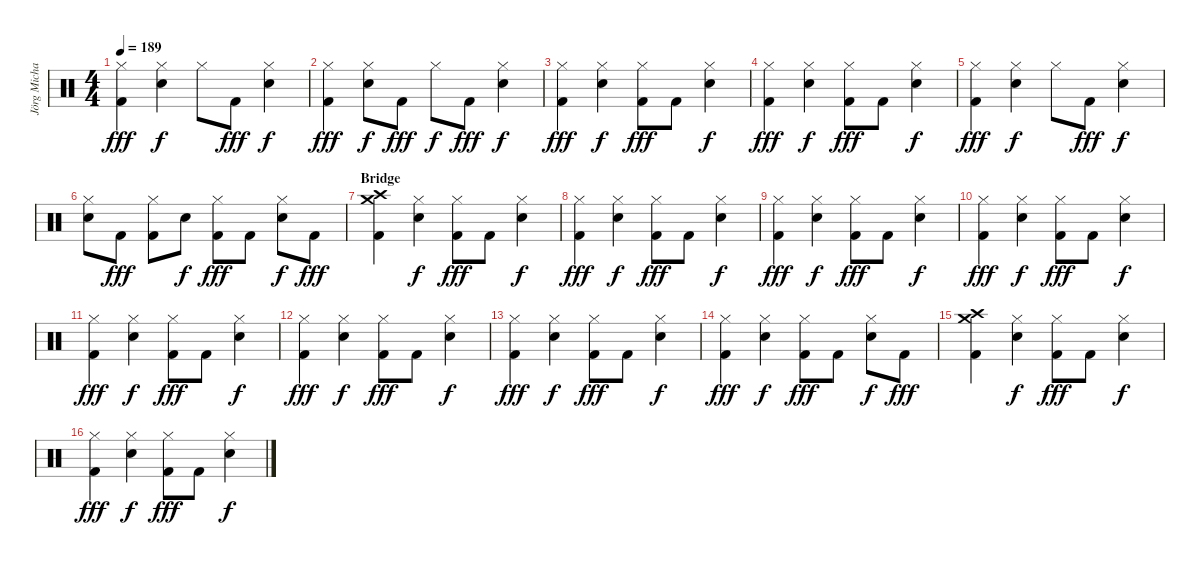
\track ("Jörg Michael" "Jörg Micha") {instrument percussion}
\staff {score}
\articulation defaults
\ts (4 4)
\tempo 189
\clef neutral
\ks c
("Hi-Hat (closed)" "Kick (hit) 2").4{dy fff} ("Hi-Hat (closed)" "Electric Snare (hit)").4{dy f} "Hi-Hat (closed)".8 "Kick (hit) 2".8{dy fff} ("Hi-Hat (closed)" "Electric Snare (hit)").4{dy f} |
("Hi-Hat (closed)" "Kick (hit) 2").4{dy fff} ("Hi-Hat (closed)" "Electric Snare (hit)").8{dy f} "Kick (hit) 2".8{dy fff} "Hi-Hat (closed)".8{dy f} "Kick (hit) 2".8{dy fff} ("Hi-Hat (closed)" "Electric Snare (hit)").4{dy f} |
("Hi-Hat (closed)" "Kick (hit) 2").4{dy fff} ("Hi-Hat (closed)" "Electric Snare (hit)").4{dy f} ("Hi-Hat (closed)" "Kick (hit) 2").8{dy fff} "Kick (hit) 2".8 ("Hi-Hat (closed)" "Electric Snare (hit)").4{dy f} |
("Hi-Hat (closed)" "Kick (hit) 2").4{dy fff} ("Hi-Hat (closed)" "Electric Snare (hit)").4{dy f} ("Hi-Hat (closed)" "Kick (hit) 2").8{dy fff} "Kick (hit) 2".8 ("Hi-Hat (closed)" "Electric Snare (hit)").4{dy f} |
("Hi-Hat (closed)" "Kick (hit) 2").4{dy fff} ("Hi-Hat (closed)" "Electric Snare (hit)").4{dy f} "Hi-Hat (closed)".8 "Kick (hit) 2".8{dy fff} ("Hi-Hat (closed)" "Electric Snare (hit)").4{dy f} |
("Hi-Hat (closed)" "Electric Snare (hit)").8 "Kick (hit) 2".8{dy fff} ("Hi-Hat (closed)" "Kick (hit) 2").8 "Electric Snare (hit)".8{dy f} ("Hi-Hat (closed)" "Kick (hit) 2").8{dy fff} "Kick (hit) 2".8 ("Hi-Hat (closed)" "Electric Snare (hit)").8{dy f} "Kick (hit) 2".8{dy fff} |
\section ("" "Bridge")
("Crash high (hit)" "Crash medium (hit)" "Kick (hit) 2").4 ("Hi-Hat (closed)" "Electric Snare (hit)").4{dy f} ("Hi-Hat (closed)" "Kick (hit) 2").8{dy fff} "Kick (hit) 2".8 ("Hi-Hat (closed)" "Electric Snare (hit)").4{dy f} |
("Hi-Hat (closed)" "Kick (hit) 2").4{dy fff} ("Hi-Hat (closed)" "Electric Snare (hit)").4{dy f} ("Hi-Hat (closed)" "Kick (hit) 2").8{dy fff} "Kick (hit) 2".8 ("Hi-Hat (closed)" "Electric Snare (hit)").4{dy f} |
("Hi-Hat (closed)" "Kick (hit) 2").4{dy fff} ("Hi-Hat (closed)" "Electric Snare (hit)").4{dy f} ("Hi-Hat (closed)" "Kick (hit) 2").8{dy fff} "Kick (hit) 2".8 ("Hi-Hat (closed)" "Electric Snare (hit)").4{dy f} |
("Hi-Hat (closed)" "Kick (hit) 2").4{dy fff} ("Hi-Hat (closed)" "Electric Snare (hit)").4{dy f} ("Hi-Hat (closed)" "Kick (hit) 2").8{dy fff} "Kick (hit) 2".8 ("Hi-Hat (closed)" "Electric Snare (hit)").4{dy f} |
("Hi-Hat (closed)" "Kick (hit) 2").4{dy fff} ("Hi-Hat (closed)" "Electric Snare (hit)").4{dy f} ("Hi-Hat (closed)" "Kick (hit) 2").8{dy fff} "Kick (hit) 2".8 ("Hi-Hat (closed)" "Electric Snare (hit)").4{dy f} |
("Hi-Hat (closed)" "Kick (hit) 2").4{dy fff} ("Hi-Hat (closed)" "Electric Snare (hit)").4{dy f} ("Hi-Hat (closed)" "Kick (hit) 2").8{dy fff} "Kick (hit) 2".8 ("Hi-Hat (closed)" "Electric Snare (hit)").4{dy f} |
("Hi-Hat (closed)" "Kick (hit) 2").4{dy fff} ("Hi-Hat (closed)" "Electric Snare (hit)").4{dy f} ("Hi-Hat (closed)" "Kick (hit) 2").8{dy fff} "Kick (hit) 2".8 ("Hi-Hat (closed)" "Electric Snare (hit)").4{dy f} |
("Hi-Hat (closed)" "Kick (hit) 2").4{dy fff} ("Hi-Hat (closed)" "Electric Snare (hit)").4{dy f} ("Hi-Hat (closed)" "Kick (hit) 2").8{dy fff} "Kick (hit) 2".8 ("Hi-Hat (closed)" "Electric Snare (hit)").8{dy f} "Kick (hit) 2".8{dy fff} |
("Crash medium (hit)" "Crash high (hit)" "Kick (hit) 2").4 ("Hi-Hat (closed)" "Electric Snare (hit)").4{dy f} ("Hi-Hat (closed)" "Kick (hit) 2").8{dy fff} "Kick (hit) 2".8 ("Hi-Hat (closed)" "Electric Snare (hit)").4{dy f} |
("Hi-Hat (closed)" "Kick (hit) 2").4{dy fff} ("Hi-Hat (closed)" "Electric Snare (hit)").4{dy f} ("Hi-Hat (closed)" "Kick (hit) 2").8{dy fff} "Kick (hit) 2".8 ("Hi-Hat (closed)" "Electric Snare (hit)").4{dy f}
